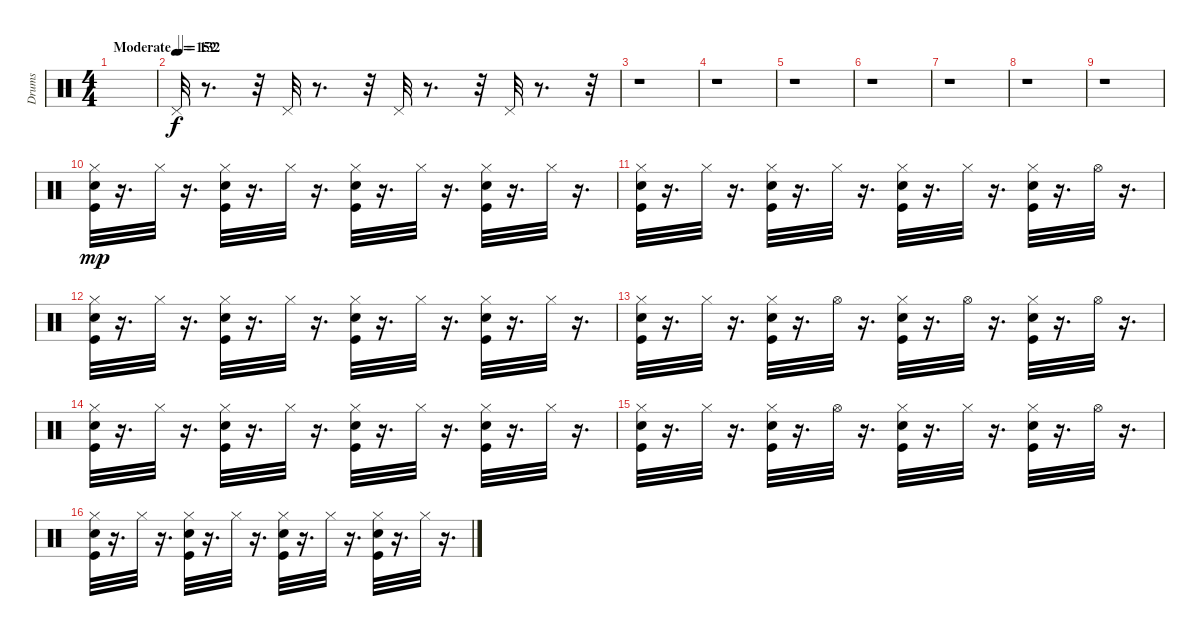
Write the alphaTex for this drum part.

\track ("Drums   " "Drums   ") {instrument percussion}
\staff {score}
\articulation defaults
\ts (4 4)
\tempo (132 "Moderate")
\clef neutral
\ks c
|
\tempo (152)
"Pedal Hi-Hat (hit)".32 r.8{d} r.32 "Pedal Hi-Hat (hit)".32 r.8{d} r.32 "Pedal Hi-Hat (hit)".32 r.8{d} r.32 "Pedal Hi-Hat (hit)".32 r.8{d} r.32 |
r.1 |
r.1 |
r.1 |
r.1 |
r.1 |
r.1 |
r.1 |
("Snare (hit) 2" "Hi-Hat (closed)" "Kick (hit)").32{dy mp} r.16{d} "Hi-Hat (closed)".32 r.16{d} ("Snare (hit) 2" "Hi-Hat (closed)" "Kick (hit)").32 r.16{d} "Hi-Hat (closed)".32 r.16{d} ("Snare (hit) 2" "Hi-Hat (closed)" "Kick (hit)").32 r.16{d} "Hi-Hat (closed)".32 r.16{d} ("Snare (hit) 2" "Hi-Hat (closed)" "Kick (hit)").32 r.16{d} "Hi-Hat (closed)".32 r.16{d} |
("Snare (hit) 2" "Hi-Hat (closed)" "Kick (hit)").32 r.16{d} "Hi-Hat (closed)".32 r.16{d} ("Snare (hit) 2" "Hi-Hat (closed)" "Kick (hit)").32 r.16{d} "Hi-Hat (closed)".32 r.16{d} ("Snare (hit) 2" "Hi-Hat (closed)" "Kick (hit)").32 r.16{d} "Hi-Hat (closed)".32 r.16{d} ("Snare (hit) 2" "Hi-Hat (closed)" "Kick (hit)").32 r.16{d} "Hi-Hat (open)".32 r.16{d} |
("Snare (hit) 2" "Hi-Hat (closed)" "Kick (hit)").32 r.16{d} "Hi-Hat (closed)".32 r.16{d} ("Snare (hit) 2" "Hi-Hat (closed)" "Kick (hit)").32 r.16{d} "Hi-Hat (closed)".32 r.16{d} ("Snare (hit) 2" "Hi-Hat (closed)" "Kick (hit)").32 r.16{d} "Hi-Hat (closed)".32 r.16{d} ("Snare (hit) 2" "Hi-Hat (closed)" "Kick (hit)").32 r.16{d} "Hi-Hat (closed)".32 r.16{d} |
("Snare (hit) 2" "Hi-Hat (closed)" "Kick (hit)").32 r.16{d} "Hi-Hat (closed)".32 r.16{d} ("Snare (hit) 2" "Hi-Hat (closed)" "Kick (hit)").32 r.16{d} "Hi-Hat (open)".32 r.16{d} ("Snare (hit) 2" "Hi-Hat (closed)" "Kick (hit)").32 r.16{d} "Hi-Hat (open)".32 r.16{d} ("Snare (hit) 2" "Hi-Hat (closed)" "Kick (hit)").32 r.16{d} "Hi-Hat (open)".32 r.16{d} |
("Snare (hit) 2" "Hi-Hat (closed)" "Kick (hit)").32 r.16{d} "Hi-Hat (closed)".32 r.16{d} ("Snare (hit) 2" "Hi-Hat (closed)" "Kick (hit)").32 r.16{d} "Hi-Hat (closed)".32 r.16{d} ("Snare (hit) 2" "Hi-Hat (closed)" "Kick (hit)").32 r.16{d} "Hi-Hat (closed)".32 r.16{d} ("Snare (hit) 2" "Hi-Hat (closed)" "Kick (hit)").32 r.16{d} "Hi-Hat (closed)".32 r.16{d} |
("Snare (hit) 2" "Hi-Hat (closed)" "Kick (hit)").32 r.16{d} "Hi-Hat (closed)".32 r.16{d} ("Snare (hit) 2" "Hi-Hat (closed)" "Kick (hit)").32 r.16{d} "Hi-Hat (open)".32 r.16{d} ("Snare (hit) 2" "Hi-Hat (closed)" "Kick (hit)").32 r.16{d} "Hi-Hat (closed)".32 r.16{d} ("Snare (hit) 2" "Hi-Hat (closed)" "Kick (hit)").32 r.16{d} "Hi-Hat (open)".32 r.16{d} |
("Snare (hit) 2" "Hi-Hat (closed)" "Kick (hit)").32 r.16{d} "Hi-Hat (closed)".32 r.16{d} ("Snare (hit) 2" "Hi-Hat (closed)" "Kick (hit)").32 r.16{d} "Hi-Hat (closed)".32 r.16{d} ("Snare (hit) 2" "Hi-Hat (closed)" "Kick (hit)").32 r.16{d} "Hi-Hat (closed)".32 r.16{d} ("Snare (hit) 2" "Hi-Hat (closed)" "Kick (hit)").32 r.16{d} "Hi-Hat (closed)".32 r.16{d}
